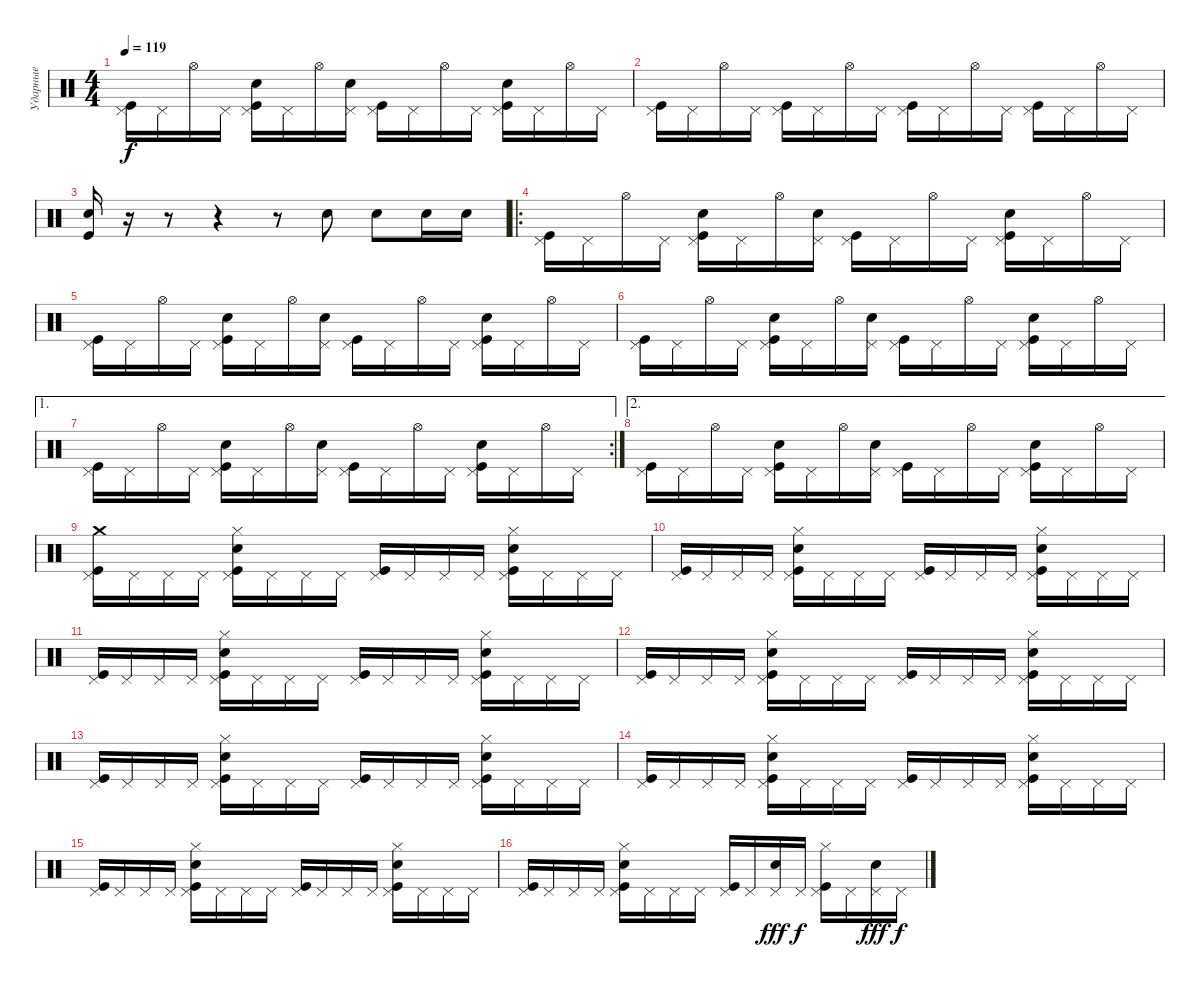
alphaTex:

\track ("Ударные" "Ударные") {instrument percussion}
\staff {score}
\articulation defaults
\ts (4 4)
\tempo 119
\clef neutral
\ks c
("Kick (hit)" "Pedal Hi-Hat (hit)").16{dy f} "Pedal Hi-Hat (hit)".16 "Hi-Hat (open)".16 "Pedal Hi-Hat (hit)".16 ("Kick (hit)" "Electric Snare (hit)" "Pedal Hi-Hat (hit)").16 "Pedal Hi-Hat (hit)".16 "Hi-Hat (open)".16 ("Electric Snare (hit)" "Pedal Hi-Hat (hit)").16 ("Kick (hit)" "Pedal Hi-Hat (hit)").16 "Pedal Hi-Hat (hit)".16 "Hi-Hat (open)".16 "Pedal Hi-Hat (hit)".16 ("Kick (hit)" "Electric Snare (hit)" "Pedal Hi-Hat (hit)").16 "Pedal Hi-Hat (hit)".16 "Hi-Hat (open)".16 "Pedal Hi-Hat (hit)".16 |
("Kick (hit)" "Pedal Hi-Hat (hit)").16 "Pedal Hi-Hat (hit)".16 "Hi-Hat (open)".16 "Pedal Hi-Hat (hit)".16 ("Kick (hit)" "Pedal Hi-Hat (hit)").16 "Pedal Hi-Hat (hit)".16 "Hi-Hat (open)".16 "Pedal Hi-Hat (hit)".16 ("Kick (hit)" "Pedal Hi-Hat (hit)").16 "Pedal Hi-Hat (hit)".16 "Hi-Hat (open)".16 "Pedal Hi-Hat (hit)".16 ("Kick (hit)" "Pedal Hi-Hat (hit)").16 "Pedal Hi-Hat (hit)".16 "Hi-Hat (open)".16 "Pedal Hi-Hat (hit)".16 |
("Kick (hit)" "Electric Snare (hit)").16 r.16 r.8 r.4 r.8 "Electric Snare (hit)".8 "Electric Snare (hit)".8 "Electric Snare (hit)".16 "Electric Snare (hit)".16 |
\ro
("Kick (hit)" "Pedal Hi-Hat (hit)").16 "Pedal Hi-Hat (hit)".16 "Hi-Hat (open)".16 "Pedal Hi-Hat (hit)".16 ("Kick (hit)" "Electric Snare (hit)" "Pedal Hi-Hat (hit)").16 "Pedal Hi-Hat (hit)".16 "Hi-Hat (open)".16 ("Electric Snare (hit)" "Pedal Hi-Hat (hit)").16 ("Kick (hit)" "Pedal Hi-Hat (hit)").16 "Pedal Hi-Hat (hit)".16 "Hi-Hat (open)".16 "Pedal Hi-Hat (hit)".16 ("Kick (hit)" "Electric Snare (hit)" "Pedal Hi-Hat (hit)").16 "Pedal Hi-Hat (hit)".16 "Hi-Hat (open)".16 "Pedal Hi-Hat (hit)".16 |
("Kick (hit)" "Pedal Hi-Hat (hit)").16 "Pedal Hi-Hat (hit)".16 "Hi-Hat (open)".16 "Pedal Hi-Hat (hit)".16 ("Kick (hit)" "Electric Snare (hit)" "Pedal Hi-Hat (hit)").16 "Pedal Hi-Hat (hit)".16 "Hi-Hat (open)".16 ("Electric Snare (hit)" "Pedal Hi-Hat (hit)").16 ("Kick (hit)" "Pedal Hi-Hat (hit)").16 "Pedal Hi-Hat (hit)".16 "Hi-Hat (open)".16 "Pedal Hi-Hat (hit)".16 ("Kick (hit)" "Electric Snare (hit)" "Pedal Hi-Hat (hit)").16 "Pedal Hi-Hat (hit)".16 "Hi-Hat (open)".16 "Pedal Hi-Hat (hit)".16 |
("Kick (hit)" "Pedal Hi-Hat (hit)").16 "Pedal Hi-Hat (hit)".16 "Hi-Hat (open)".16 "Pedal Hi-Hat (hit)".16 ("Kick (hit)" "Electric Snare (hit)" "Pedal Hi-Hat (hit)").16 "Pedal Hi-Hat (hit)".16 "Hi-Hat (open)".16 ("Electric Snare (hit)" "Pedal Hi-Hat (hit)").16 ("Kick (hit)" "Pedal Hi-Hat (hit)").16 "Pedal Hi-Hat (hit)".16 "Hi-Hat (open)".16 "Pedal Hi-Hat (hit)".16 ("Kick (hit)" "Electric Snare (hit)" "Pedal Hi-Hat (hit)").16 "Pedal Hi-Hat (hit)".16 "Hi-Hat (open)".16 "Pedal Hi-Hat (hit)".16 |
\ae 1
\rc 2
("Kick (hit)" "Pedal Hi-Hat (hit)").16 "Pedal Hi-Hat (hit)".16 "Hi-Hat (open)".16 "Pedal Hi-Hat (hit)".16 ("Kick (hit)" "Electric Snare (hit)" "Pedal Hi-Hat (hit)").16 "Pedal Hi-Hat (hit)".16 "Hi-Hat (open)".16 ("Electric Snare (hit)" "Pedal Hi-Hat (hit)").16 ("Kick (hit)" "Pedal Hi-Hat (hit)").16 "Pedal Hi-Hat (hit)".16 "Hi-Hat (open)".16 "Pedal Hi-Hat (hit)".16 ("Kick (hit)" "Electric Snare (hit)" "Pedal Hi-Hat (hit)").16 "Pedal Hi-Hat (hit)".16 "Hi-Hat (open)".16 "Pedal Hi-Hat (hit)".16 |
\ae 2
("Kick (hit)" "Pedal Hi-Hat (hit)").16 "Pedal Hi-Hat (hit)".16 "Hi-Hat (open)".16 "Pedal Hi-Hat (hit)".16 ("Kick (hit)" "Electric Snare (hit)" "Pedal Hi-Hat (hit)").16 "Pedal Hi-Hat (hit)".16 "Hi-Hat (open)".16 ("Electric Snare (hit)" "Pedal Hi-Hat (hit)").16 ("Kick (hit)" "Pedal Hi-Hat (hit)").16 "Pedal Hi-Hat (hit)".16 "Hi-Hat (open)".16 "Pedal Hi-Hat (hit)".16 ("Kick (hit)" "Electric Snare (hit)" "Pedal Hi-Hat (hit)").16 "Pedal Hi-Hat (hit)".16 "Hi-Hat (open)".16 "Pedal Hi-Hat (hit)".16 |
("Kick (hit)" "Pedal Hi-Hat (hit)" "Crash medium (hit)").16 "Pedal Hi-Hat (hit)".16 "Pedal Hi-Hat (hit)".16 "Pedal Hi-Hat (hit)".16 ("Kick (hit)" "Pedal Hi-Hat (hit)" "Hi-Hat (closed)" "Electric Snare (hit)").16 "Pedal Hi-Hat (hit)".16 "Pedal Hi-Hat (hit)".16 "Pedal Hi-Hat (hit)".16 ("Kick (hit)" "Pedal Hi-Hat (hit)").16 "Pedal Hi-Hat (hit)".16 "Pedal Hi-Hat (hit)".16 "Pedal Hi-Hat (hit)".16 ("Kick (hit)" "Pedal Hi-Hat (hit)" "Hi-Hat (closed)" "Electric Snare (hit)").16 "Pedal Hi-Hat (hit)".16 "Pedal Hi-Hat (hit)".16 "Pedal Hi-Hat (hit)".16 |
("Kick (hit)" "Pedal Hi-Hat (hit)").16 "Pedal Hi-Hat (hit)".16 "Pedal Hi-Hat (hit)".16 "Pedal Hi-Hat (hit)".16 ("Kick (hit)" "Pedal Hi-Hat (hit)" "Hi-Hat (closed)" "Electric Snare (hit)").16 "Pedal Hi-Hat (hit)".16 "Pedal Hi-Hat (hit)".16 "Pedal Hi-Hat (hit)".16 ("Kick (hit)" "Pedal Hi-Hat (hit)").16 "Pedal Hi-Hat (hit)".16 "Pedal Hi-Hat (hit)".16 "Pedal Hi-Hat (hit)".16 ("Kick (hit)" "Pedal Hi-Hat (hit)" "Hi-Hat (closed)" "Electric Snare (hit)").16 "Pedal Hi-Hat (hit)".16 "Pedal Hi-Hat (hit)".16 "Pedal Hi-Hat (hit)".16 |
("Kick (hit)" "Pedal Hi-Hat (hit)").16 "Pedal Hi-Hat (hit)".16 "Pedal Hi-Hat (hit)".16 "Pedal Hi-Hat (hit)".16 ("Kick (hit)" "Pedal Hi-Hat (hit)" "Hi-Hat (closed)" "Electric Snare (hit)").16 "Pedal Hi-Hat (hit)".16 "Pedal Hi-Hat (hit)".16 "Pedal Hi-Hat (hit)".16 ("Kick (hit)" "Pedal Hi-Hat (hit)").16 "Pedal Hi-Hat (hit)".16 "Pedal Hi-Hat (hit)".16 "Pedal Hi-Hat (hit)".16 ("Kick (hit)" "Pedal Hi-Hat (hit)" "Hi-Hat (closed)" "Electric Snare (hit)").16 "Pedal Hi-Hat (hit)".16 "Pedal Hi-Hat (hit)".16 "Pedal Hi-Hat (hit)".16 |
("Kick (hit)" "Pedal Hi-Hat (hit)").16 "Pedal Hi-Hat (hit)".16 "Pedal Hi-Hat (hit)".16 "Pedal Hi-Hat (hit)".16 ("Kick (hit)" "Pedal Hi-Hat (hit)" "Hi-Hat (closed)" "Electric Snare (hit)").16 "Pedal Hi-Hat (hit)".16 "Pedal Hi-Hat (hit)".16 "Pedal Hi-Hat (hit)".16 ("Kick (hit)" "Pedal Hi-Hat (hit)").16 "Pedal Hi-Hat (hit)".16 "Pedal Hi-Hat (hit)".16 "Pedal Hi-Hat (hit)".16 ("Kick (hit)" "Pedal Hi-Hat (hit)" "Hi-Hat (closed)" "Electric Snare (hit)").16 "Pedal Hi-Hat (hit)".16 "Pedal Hi-Hat (hit)".16 "Pedal Hi-Hat (hit)".16 |
("Kick (hit)" "Pedal Hi-Hat (hit)").16 "Pedal Hi-Hat (hit)".16 "Pedal Hi-Hat (hit)".16 "Pedal Hi-Hat (hit)".16 ("Kick (hit)" "Pedal Hi-Hat (hit)" "Hi-Hat (closed)" "Electric Snare (hit)").16 "Pedal Hi-Hat (hit)".16 "Pedal Hi-Hat (hit)".16 "Pedal Hi-Hat (hit)".16 ("Kick (hit)" "Pedal Hi-Hat (hit)").16 "Pedal Hi-Hat (hit)".16 "Pedal Hi-Hat (hit)".16 "Pedal Hi-Hat (hit)".16 ("Kick (hit)" "Pedal Hi-Hat (hit)" "Hi-Hat (closed)" "Electric Snare (hit)").16 "Pedal Hi-Hat (hit)".16 "Pedal Hi-Hat (hit)".16 "Pedal Hi-Hat (hit)".16 |
("Kick (hit)" "Pedal Hi-Hat (hit)").16 "Pedal Hi-Hat (hit)".16 "Pedal Hi-Hat (hit)".16 "Pedal Hi-Hat (hit)".16 ("Kick (hit)" "Pedal Hi-Hat (hit)" "Hi-Hat (closed)" "Electric Snare (hit)").16 "Pedal Hi-Hat (hit)".16 "Pedal Hi-Hat (hit)".16 "Pedal Hi-Hat (hit)".16 ("Kick (hit)" "Pedal Hi-Hat (hit)").16 "Pedal Hi-Hat (hit)".16 "Pedal Hi-Hat (hit)".16 "Pedal Hi-Hat (hit)".16 ("Kick (hit)" "Pedal Hi-Hat (hit)" "Hi-Hat (closed)" "Electric Snare (hit)").16 "Pedal Hi-Hat (hit)".16 "Pedal Hi-Hat (hit)".16 "Pedal Hi-Hat (hit)".16 |
("Kick (hit)" "Pedal Hi-Hat (hit)").16 "Pedal Hi-Hat (hit)".16 "Pedal Hi-Hat (hit)".16 "Pedal Hi-Hat (hit)".16 ("Kick (hit)" "Pedal Hi-Hat (hit)" "Hi-Hat (closed)" "Electric Snare (hit)").16 "Pedal Hi-Hat (hit)".16 "Pedal Hi-Hat (hit)".16 "Pedal Hi-Hat (hit)".16 ("Kick (hit)" "Pedal Hi-Hat (hit)").16 "Pedal Hi-Hat (hit)".16 "Pedal Hi-Hat (hit)".16 "Pedal Hi-Hat (hit)".16 ("Kick (hit)" "Pedal Hi-Hat (hit)" "Hi-Hat (closed)" "Electric Snare (hit)").16 "Pedal Hi-Hat (hit)".16 "Pedal Hi-Hat (hit)".16 "Pedal Hi-Hat (hit)".16 |
("Kick (hit)" "Pedal Hi-Hat (hit)").16 "Pedal Hi-Hat (hit)".16 "Pedal Hi-Hat (hit)".16 "Pedal Hi-Hat (hit)".16 ("Kick (hit)" "Pedal Hi-Hat (hit)" "Hi-Hat (closed)" "Electric Snare (hit)").16 "Pedal Hi-Hat (hit)".16 "Pedal Hi-Hat (hit)".16 "Pedal Hi-Hat (hit)".16 ("Kick (hit)" "Pedal Hi-Hat (hit)").16 "Pedal Hi-Hat (hit)".16 ("Pedal Hi-Hat (hit)" "Electric Snare (hit)").16{dy fff} "Pedal Hi-Hat (hit)".16{dy f} ("Kick (hit)" "Pedal Hi-Hat (hit)" "Hi-Hat (closed)").16 "Pedal Hi-Hat (hit)".16 ("Pedal Hi-Hat (hit)" "Electric Snare (hit)").16{dy fff} "Pedal Hi-Hat (hit)".16{dy f}
